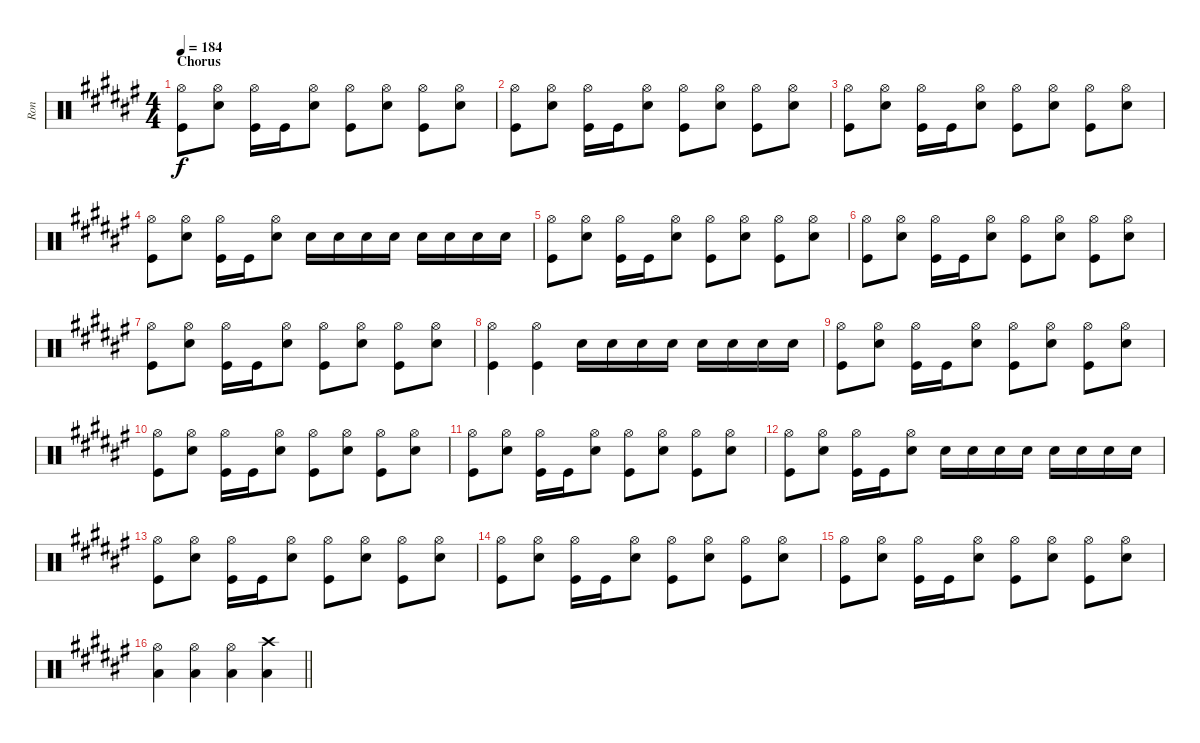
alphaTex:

\track ("Ron" "Ron") {instrument percussion}
\staff {score}
\articulation defaults
\ts (4 4)
\section ("" "Chorus")
\tempo 184
\clef neutral
\ks f#
("Kick (hit)" "Hi-Hat (open)").8{dy f} ("Electric Snare (hit)" "Hi-Hat (open)").8 ("Kick (hit)" "Hi-Hat (open)").16 "Kick (hit)".16 ("Electric Snare (hit)" "Hi-Hat (open)").8 ("Kick (hit)" "Hi-Hat (open)").8 ("Electric Snare (hit)" "Hi-Hat (open)").8 ("Kick (hit)" "Hi-Hat (open)").8 ("Electric Snare (hit)" "Hi-Hat (open)").8 |
("Kick (hit)" "Hi-Hat (open)").8 ("Electric Snare (hit)" "Hi-Hat (open)").8 ("Kick (hit)" "Hi-Hat (open)").16 "Kick (hit)".16 ("Electric Snare (hit)" "Hi-Hat (open)").8 ("Kick (hit)" "Hi-Hat (open)").8 ("Electric Snare (hit)" "Hi-Hat (open)").8 ("Kick (hit)" "Hi-Hat (open)").8 ("Electric Snare (hit)" "Hi-Hat (open)").8 |
("Kick (hit)" "Hi-Hat (open)").8 ("Electric Snare (hit)" "Hi-Hat (open)").8 ("Kick (hit)" "Hi-Hat (open)").16 "Kick (hit)".16 ("Electric Snare (hit)" "Hi-Hat (open)").8 ("Kick (hit)" "Hi-Hat (open)").8 ("Electric Snare (hit)" "Hi-Hat (open)").8 ("Kick (hit)" "Hi-Hat (open)").8 ("Electric Snare (hit)" "Hi-Hat (open)").8 |
("Kick (hit)" "Hi-Hat (open)").8 ("Electric Snare (hit)" "Hi-Hat (open)").8 ("Kick (hit)" "Hi-Hat (open)").16 "Kick (hit)".16 ("Electric Snare (hit)" "Hi-Hat (open)").8 "Electric Snare (hit)".16 "Electric Snare (hit)".16 "Electric Snare (hit)".16 "Electric Snare (hit)".16 "Electric Snare (hit)".16 "Electric Snare (hit)".16 "Electric Snare (hit)".16 "Electric Snare (hit)".16 |
("Kick (hit)" "Hi-Hat (open)").8 ("Electric Snare (hit)" "Hi-Hat (open)").8 ("Kick (hit)" "Hi-Hat (open)").16 "Kick (hit)".16 ("Electric Snare (hit)" "Hi-Hat (open)").8 ("Kick (hit)" "Hi-Hat (open)").8 ("Electric Snare (hit)" "Hi-Hat (open)").8 ("Kick (hit)" "Hi-Hat (open)").8 ("Electric Snare (hit)" "Hi-Hat (open)").8 |
("Kick (hit)" "Hi-Hat (open)").8 ("Electric Snare (hit)" "Hi-Hat (open)").8 ("Kick (hit)" "Hi-Hat (open)").16 "Kick (hit)".16 ("Electric Snare (hit)" "Hi-Hat (open)").8 ("Kick (hit)" "Hi-Hat (open)").8 ("Electric Snare (hit)" "Hi-Hat (open)").8 ("Kick (hit)" "Hi-Hat (open)").8 ("Electric Snare (hit)" "Hi-Hat (open)").8 |
("Kick (hit)" "Hi-Hat (open)").8 ("Electric Snare (hit)" "Hi-Hat (open)").8 ("Kick (hit)" "Hi-Hat (open)").16 "Kick (hit)".16 ("Electric Snare (hit)" "Hi-Hat (open)").8 ("Kick (hit)" "Hi-Hat (open)").8 ("Electric Snare (hit)" "Hi-Hat (open)").8 ("Kick (hit)" "Hi-Hat (open)").8 ("Electric Snare (hit)" "Hi-Hat (open)").8 |
("Kick (hit)" "Hi-Hat (open)").4 ("Kick (hit)" "Hi-Hat (open)").4 "Electric Snare (hit)".16 "Electric Snare (hit)".16 "Electric Snare (hit)".16 "Electric Snare (hit)".16 "Electric Snare (hit)".16 "Electric Snare (hit)".16 "Electric Snare (hit)".16 "Electric Snare (hit)".16 |
("Kick (hit)" "Hi-Hat (open)").8 ("Electric Snare (hit)" "Hi-Hat (open)").8 ("Kick (hit)" "Hi-Hat (open)").16 "Kick (hit)".16 ("Electric Snare (hit)" "Hi-Hat (open)").8 ("Kick (hit)" "Hi-Hat (open)").8 ("Electric Snare (hit)" "Hi-Hat (open)").8 ("Kick (hit)" "Hi-Hat (open)").8 ("Electric Snare (hit)" "Hi-Hat (open)").8 |
("Kick (hit)" "Hi-Hat (open)").8 ("Electric Snare (hit)" "Hi-Hat (open)").8 ("Kick (hit)" "Hi-Hat (open)").16 "Kick (hit)".16 ("Electric Snare (hit)" "Hi-Hat (open)").8 ("Kick (hit)" "Hi-Hat (open)").8 ("Electric Snare (hit)" "Hi-Hat (open)").8 ("Kick (hit)" "Hi-Hat (open)").8 ("Electric Snare (hit)" "Hi-Hat (open)").8 |
("Kick (hit)" "Hi-Hat (open)").8 ("Electric Snare (hit)" "Hi-Hat (open)").8 ("Kick (hit)" "Hi-Hat (open)").16 "Kick (hit)".16 ("Electric Snare (hit)" "Hi-Hat (open)").8 ("Kick (hit)" "Hi-Hat (open)").8 ("Electric Snare (hit)" "Hi-Hat (open)").8 ("Kick (hit)" "Hi-Hat (open)").8 ("Electric Snare (hit)" "Hi-Hat (open)").8 |
("Kick (hit)" "Hi-Hat (open)").8 ("Electric Snare (hit)" "Hi-Hat (open)").8 ("Kick (hit)" "Hi-Hat (open)").16 "Kick (hit)".16 ("Electric Snare (hit)" "Hi-Hat (open)").8 "Electric Snare (hit)".16 "Electric Snare (hit)".16 "Electric Snare (hit)".16 "Electric Snare (hit)".16 "Electric Snare (hit)".16 "Electric Snare (hit)".16 "Electric Snare (hit)".16 "Electric Snare (hit)".16 |
("Kick (hit)" "Hi-Hat (open)").8 ("Electric Snare (hit)" "Hi-Hat (open)").8 ("Kick (hit)" "Hi-Hat (open)").16 "Kick (hit)".16 ("Electric Snare (hit)" "Hi-Hat (open)").8 ("Kick (hit)" "Hi-Hat (open)").8 ("Electric Snare (hit)" "Hi-Hat (open)").8 ("Kick (hit)" "Hi-Hat (open)").8 ("Electric Snare (hit)" "Hi-Hat (open)").8 |
("Kick (hit)" "Hi-Hat (open)").8 ("Electric Snare (hit)" "Hi-Hat (open)").8 ("Kick (hit)" "Hi-Hat (open)").16 "Kick (hit)".16 ("Electric Snare (hit)" "Hi-Hat (open)").8 ("Kick (hit)" "Hi-Hat (open)").8 ("Electric Snare (hit)" "Hi-Hat (open)").8 ("Kick (hit)" "Hi-Hat (open)").8 ("Electric Snare (hit)" "Hi-Hat (open)").8 |
("Kick (hit)" "Hi-Hat (open)").8 ("Electric Snare (hit)" "Hi-Hat (open)").8 ("Kick (hit)" "Hi-Hat (open)").16 "Kick (hit)".16 ("Electric Snare (hit)" "Hi-Hat (open)").8 ("Kick (hit)" "Hi-Hat (open)").8 ("Electric Snare (hit)" "Hi-Hat (open)").8 ("Kick (hit)" "Hi-Hat (open)").8 ("Electric Snare (hit)" "Hi-Hat (open)").8 |
\barLineRight lightlight
("Hi-Hat (open)" "Low Tom (hit)").4 ("Hi-Hat (open)" "Low Tom (hit)").4 ("Hi-Hat (open)" "Low Tom (hit)").4 ("Crash high (hit)" "Low Tom (hit)").4
